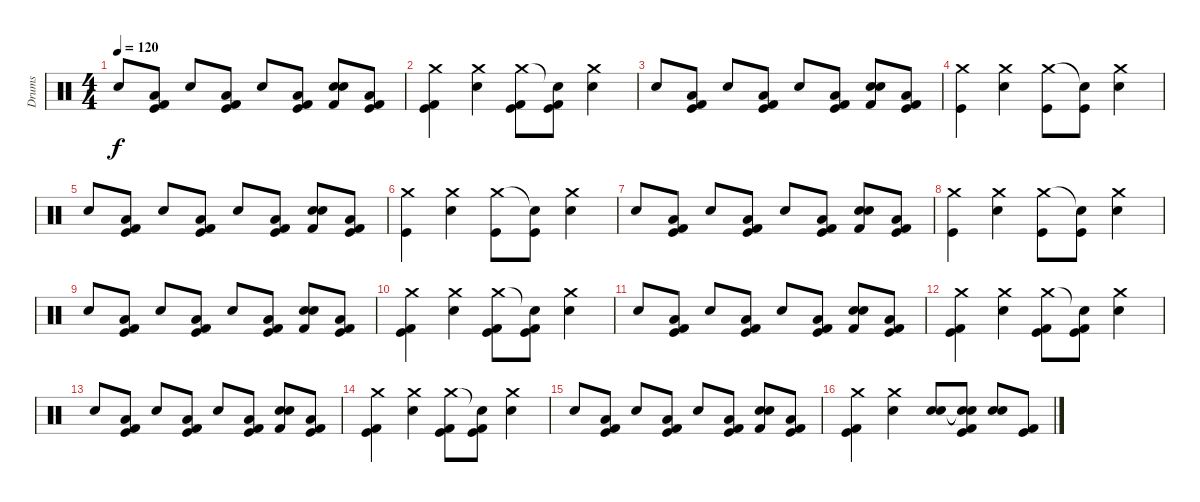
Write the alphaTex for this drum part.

\track ("Drums" "Drums") {instrument percussion}
\staff {score}
\articulation defaults
\ts (4 4)
\tempo 120
\clef neutral
\ks c "Snare (hit) 2".8{dy f}
("Low Floor Tom (hit)" "Kick (hit)" "Kick (hit) 2").8 "Snare (hit) 2".8 ("Low Floor Tom (hit)" "Kick (hit)" "Kick (hit) 2").8 "Snare (hit) 2".8 ("Low Floor Tom (hit)" "Kick (hit)" "Kick (hit) 2").8 ("Electric Snare (hit)" "Snare (hit) 2" "Kick (hit) 2").8 ("Low Floor Tom (hit)" "Kick (hit)" "Kick (hit) 2").8 |
("Crash medium (hit)" "Kick (hit)" "Kick (hit) 2").4 ("Crash medium (hit)" "Snare (hit) 2").4 ("Crash medium (hit)" "Kick (hit)" "Kick (hit) 2").8 ("Snare (hit)"{t} "Kick (hit)" "Kick (hit) 2").8 ("Crash medium (hit)" "Snare (hit) 2").4 |
"Snare (hit) 2".8 ("Low Floor Tom (hit)" "Kick (hit)" "Kick (hit) 2").8 "Snare (hit) 2".8 ("Low Floor Tom (hit)" "Kick (hit)" "Kick (hit) 2").8 "Snare (hit) 2".8 ("Low Floor Tom (hit)" "Kick (hit)" "Kick (hit) 2").8 ("Electric Snare (hit)" "Snare (hit) 2" "Kick (hit) 2").8 ("Low Floor Tom (hit)" "Kick (hit)" "Kick (hit) 2").8 |
("Crash medium (hit)" "Kick (hit)").4 ("Crash medium (hit)" "Snare (hit) 2").4 ("Crash medium (hit)" "Kick (hit)").8 ("Snare (hit)"{t} "Kick (hit)").8 ("Crash medium (hit)" "Snare (hit) 2").4 |
"Snare (hit) 2".8 ("Low Floor Tom (hit)" "Kick (hit)" "Kick (hit) 2").8 "Snare (hit) 2".8 ("Low Floor Tom (hit)" "Kick (hit)" "Kick (hit) 2").8 "Snare (hit) 2".8 ("Low Floor Tom (hit)" "Kick (hit)" "Kick (hit) 2").8 ("Electric Snare (hit)" "Snare (hit) 2" "Kick (hit) 2").8 ("Low Floor Tom (hit)" "Kick (hit)" "Kick (hit) 2").8 |
("Crash medium (hit)" "Kick (hit)").4 ("Crash medium (hit)" "Snare (hit) 2").4 ("Crash medium (hit)" "Kick (hit)").8 ("Snare (hit)"{t} "Kick (hit)").8 ("Crash medium (hit)" "Snare (hit) 2").4 |
"Snare (hit) 2".8 ("Low Floor Tom (hit)" "Kick (hit)" "Kick (hit) 2").8 "Snare (hit) 2".8 ("Low Floor Tom (hit)" "Kick (hit)" "Kick (hit) 2").8 "Snare (hit) 2".8 ("Low Floor Tom (hit)" "Kick (hit)" "Kick (hit) 2").8 ("Electric Snare (hit)" "Snare (hit) 2" "Kick (hit) 2").8 ("Low Floor Tom (hit)" "Kick (hit)" "Kick (hit) 2").8 |
("Crash medium (hit)" "Kick (hit)").4 ("Crash medium (hit)" "Snare (hit) 2").4 ("Crash medium (hit)" "Kick (hit)").8 ("Snare (hit)"{t} "Kick (hit)").8 ("Crash medium (hit)" "Snare (hit) 2").4 |
"Snare (hit) 2".8 ("Low Floor Tom (hit)" "Kick (hit)" "Kick (hit) 2").8 "Snare (hit) 2".8 ("Low Floor Tom (hit)" "Kick (hit)" "Kick (hit) 2").8 "Snare (hit) 2".8 ("Low Floor Tom (hit)" "Kick (hit)" "Kick (hit) 2").8 ("Electric Snare (hit)" "Snare (hit) 2" "Kick (hit) 2").8 ("Low Floor Tom (hit)" "Kick (hit)" "Kick (hit) 2").8 |
("Crash medium (hit)" "Kick (hit)" "Kick (hit) 2").4 ("Crash medium (hit)" "Snare (hit) 2").4 ("Crash medium (hit)" "Kick (hit)" "Kick (hit) 2").8 ("Snare (hit)"{t} "Kick (hit)" "Kick (hit) 2").8 ("Crash medium (hit)" "Snare (hit) 2").4 |
"Snare (hit) 2".8 ("Low Floor Tom (hit)" "Kick (hit)" "Kick (hit) 2").8 "Snare (hit) 2".8 ("Low Floor Tom (hit)" "Kick (hit)" "Kick (hit) 2").8 "Snare (hit) 2".8 ("Low Floor Tom (hit)" "Kick (hit)" "Kick (hit) 2").8 ("Electric Snare (hit)" "Snare (hit) 2" "Kick (hit) 2").8 ("Low Floor Tom (hit)" "Kick (hit)" "Kick (hit) 2").8 |
("Crash medium (hit)" "Kick (hit)" "Kick (hit) 2").4 ("Crash medium (hit)" "Snare (hit) 2").4 ("Crash medium (hit)" "Kick (hit)" "Kick (hit) 2").8 ("Snare (hit)"{t} "Kick (hit)" "Kick (hit) 2").8 ("Crash medium (hit)" "Snare (hit) 2").4 |
"Snare (hit) 2".8 ("Low Floor Tom (hit)" "Kick (hit)" "Kick (hit) 2").8 "Snare (hit) 2".8 ("Low Floor Tom (hit)" "Kick (hit)" "Kick (hit) 2").8 "Snare (hit) 2".8 ("Low Floor Tom (hit)" "Kick (hit)" "Kick (hit) 2").8 ("Electric Snare (hit)" "Snare (hit) 2" "Kick (hit) 2").8 ("Low Floor Tom (hit)" "Kick (hit)" "Kick (hit) 2").8 |
("Crash medium (hit)" "Kick (hit)" "Kick (hit) 2").4 ("Crash medium (hit)" "Snare (hit) 2").4 ("Crash medium (hit)" "Kick (hit)" "Kick (hit) 2").8 ("Snare (hit)"{t} "Kick (hit)" "Kick (hit) 2").8 ("Crash medium (hit)" "Snare (hit) 2").4 |
"Snare (hit) 2".8 ("Low Floor Tom (hit)" "Kick (hit)" "Kick (hit) 2").8 "Snare (hit) 2".8 ("Low Floor Tom (hit)" "Kick (hit)" "Kick (hit) 2").8 "Snare (hit) 2".8 ("Low Floor Tom (hit)" "Kick (hit)" "Kick (hit) 2").8 ("Electric Snare (hit)" "Snare (hit) 2" "Kick (hit) 2").8 ("Low Floor Tom (hit)" "Kick (hit)" "Kick (hit) 2").8 |
("Crash medium (hit)" "Kick (hit)" "Kick (hit) 2").4 ("Crash medium (hit)" "Snare (hit) 2").4 ("Electric Snare (hit)" "Snare (hit) 2").8{bd 120} ("Snare (hit)"{t} "Snare (hit)"{t} "Kick (hit)" "Kick (hit) 2").8 ("Electric Snare (hit)" "Snare (hit) 2").8{bd 120} ("Kick (hit)" "Kick (hit) 2").8
